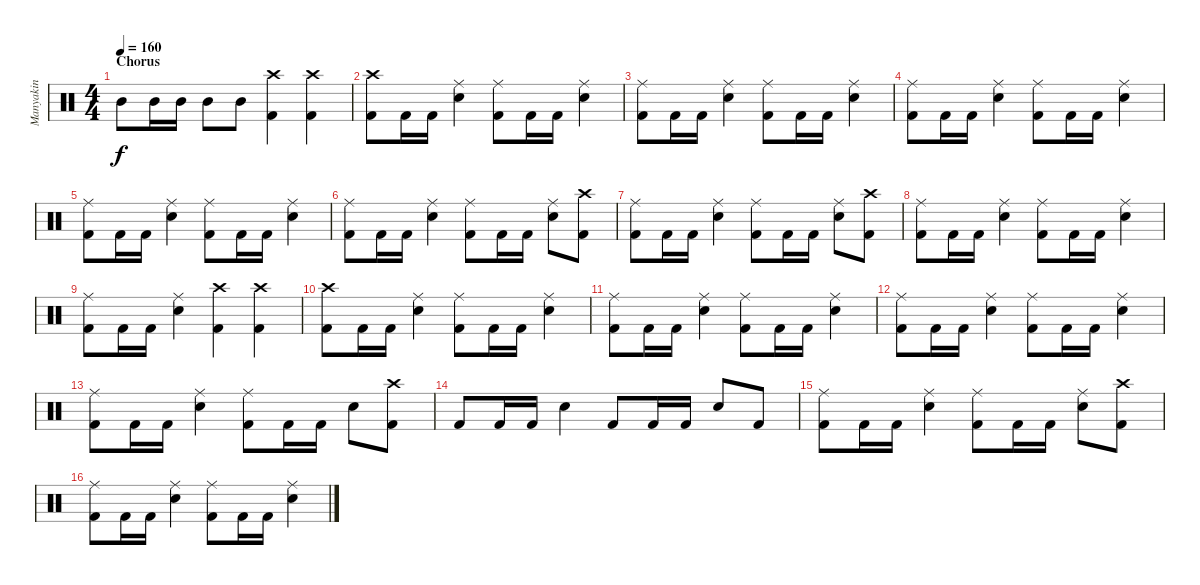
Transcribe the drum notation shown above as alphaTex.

\track ("Manyakin" "Manyakin") {instrument percussion}
\staff {score}
\articulation defaults
\ts (4 4)
\section ("" "Chorus")
\tempo 160
\clef neutral
\ks c "Mid Tom (hit)".8{dy f} "Mid Tom (hit)".16 "Mid Tom (hit)".16 "Mid Tom (hit)".8 "Mid Tom (hit)".8
("Kick (hit) 2" "Crash high (hit)").4 ("Kick (hit) 2" "Crash high (hit)").4 |
("Kick (hit) 2" "Crash high (hit)").8 "Kick (hit) 2".16 "Kick (hit) 2".16 ("Snare (hit) 2" "Ride (middle)").4 ("Kick (hit) 2" "Ride (middle)").8 "Kick (hit) 2".16 "Kick (hit) 2".16 ("Snare (hit) 2" "Ride (middle)").4 |
("Kick (hit) 2" "Ride (middle)").8 "Kick (hit) 2".16 "Kick (hit) 2".16 ("Snare (hit) 2" "Ride (middle)").4 ("Kick (hit) 2" "Ride (middle)").8 "Kick (hit) 2".16 "Kick (hit) 2".16 ("Snare (hit) 2" "Ride (middle)").4 |
("Kick (hit) 2" "Ride (middle)").8 "Kick (hit) 2".16 "Kick (hit) 2".16 ("Snare (hit) 2" "Ride (middle)").4 ("Kick (hit) 2" "Ride (middle)").8 "Kick (hit) 2".16 "Kick (hit) 2".16 ("Snare (hit) 2" "Ride (middle)").4 |
("Kick (hit) 2" "Ride (middle)").8 "Kick (hit) 2".16 "Kick (hit) 2".16 ("Snare (hit) 2" "Ride (middle)").4 ("Kick (hit) 2" "Ride (middle)").8 "Kick (hit) 2".16 "Kick (hit) 2".16 ("Snare (hit) 2" "Ride (middle)").4 |
("Kick (hit) 2" "Ride (middle)").8 "Kick (hit) 2".16 "Kick (hit) 2".16 ("Snare (hit) 2" "Ride (middle)").4 ("Kick (hit) 2" "Ride (middle)").8 "Kick (hit) 2".16 "Kick (hit) 2".16 ("Snare (hit) 2" "Ride (middle)").8 ("Kick (hit) 2" "Crash high (hit)").8 |
("Kick (hit) 2" "Ride (middle)").8 "Kick (hit) 2".16 "Kick (hit) 2".16 ("Snare (hit) 2" "Ride (middle)").4 ("Kick (hit) 2" "Ride (middle)").8 "Kick (hit) 2".16 "Kick (hit) 2".16 ("Snare (hit) 2" "Ride (middle)").8 ("Kick (hit) 2" "Crash high (hit)").8 |
("Kick (hit) 2" "Ride (middle)").8 "Kick (hit) 2".16 "Kick (hit) 2".16 ("Snare (hit) 2" "Ride (middle)").4 ("Kick (hit) 2" "Ride (middle)").8 "Kick (hit) 2".16 "Kick (hit) 2".16 ("Snare (hit) 2" "Ride (middle)").4 |
("Kick (hit) 2" "Ride (middle)").8 "Kick (hit) 2".16 "Kick (hit) 2".16 ("Snare (hit) 2" "Ride (middle)").4 ("Kick (hit) 2" "Crash high (hit)").4 ("Kick (hit) 2" "Crash high (hit)").4 |
("Kick (hit) 2" "Crash high (hit)").8 "Kick (hit) 2".16 "Kick (hit) 2".16 ("Snare (hit) 2" "Ride (middle)").4 ("Kick (hit) 2" "Ride (middle)").8 "Kick (hit) 2".16 "Kick (hit) 2".16 ("Snare (hit) 2" "Ride (middle)").4 |
("Kick (hit) 2" "Ride (middle)").8 "Kick (hit) 2".16 "Kick (hit) 2".16 ("Snare (hit) 2" "Ride (middle)").4 ("Kick (hit) 2" "Ride (middle)").8 "Kick (hit) 2".16 "Kick (hit) 2".16 ("Snare (hit) 2" "Ride (middle)").4 |
("Kick (hit) 2" "Ride (middle)").8 "Kick (hit) 2".16 "Kick (hit) 2".16 ("Snare (hit) 2" "Ride (middle)").4 ("Kick (hit) 2" "Ride (middle)").8 "Kick (hit) 2".16 "Kick (hit) 2".16 ("Snare (hit) 2" "Ride (middle)").4 |
("Kick (hit) 2" "Ride (middle)").8 "Kick (hit) 2".16 "Kick (hit) 2".16 ("Snare (hit) 2" "Ride (middle)").4 ("Kick (hit) 2" "Ride (middle)").8 "Kick (hit) 2".16 "Kick (hit) 2".16 "Snare (hit) 2".8 ("Kick (hit) 2" "Crash high (hit)").8 |
"Kick (hit) 2".8 "Kick (hit) 2".16 "Kick (hit) 2".16 "Snare (hit) 2".4 "Kick (hit) 2".8 "Kick (hit) 2".16 "Kick (hit) 2".16 "Snare (hit) 2".8 "Kick (hit) 2".8 |
("Kick (hit) 2" "Ride (middle)").8 "Kick (hit) 2".16 "Kick (hit) 2".16 ("Snare (hit) 2" "Ride (middle)").4 ("Kick (hit) 2" "Ride (middle)").8 "Kick (hit) 2".16 "Kick (hit) 2".16 ("Snare (hit) 2" "Ride (middle)").8 ("Kick (hit) 2" "Crash high (hit)").8 |
("Kick (hit) 2" "Ride (middle)").8 "Kick (hit) 2".16 "Kick (hit) 2".16 ("Snare (hit) 2" "Ride (middle)").4 ("Kick (hit) 2" "Ride (middle)").8 "Kick (hit) 2".16 "Kick (hit) 2".16 ("Snare (hit) 2" "Ride (middle)").4
